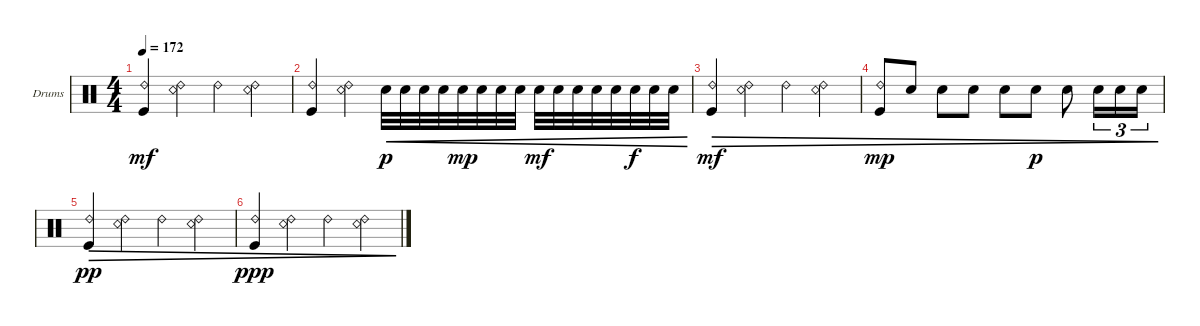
\defaultSystemsLayout 4
\bracketExtendMode groupsimilarinstruments
\firstSystemTrackNameOrientation horizontal
\otherSystemsTrackNameOrientation horizontal
\track ("Drums" "Drums") {instrument percussion}
\staff {score}
\articulation defaults
\ts (4 4)
\tempo 172
\clef neutral
\scale
0.333333
\ks c
("Ride (bell) 2" "Kick (hit)").4{dy mf} ("Ride (bell) 2" "Snare (rim shot)").4 "Ride (bell) 2".4 ("Snare (rim shot)" "Ride (bell) 2").4 |
\scale
0.333333 ("Ride (bell) 2" "Kick (hit)").4 ("Ride (bell) 2" "Snare (rim shot)").4 "Snare (hit) 2".32{cre dy p} "Snare (hit) 2".32{cre} "Snare (hit) 2".32{cre} "Snare (hit) 2".32{cre} "Snare (hit) 2".32{cre dy mp} "Snare (hit) 2".32{cre} "Snare (hit) 2".32{cre} "Snare (hit) 2".32{cre} "Snare (hit) 2".32{cre dy mf} "Snare (hit) 2".32{cre} "Snare (hit) 2".32{cre} "Snare (hit) 2".32{cre} "Snare (hit) 2".32{cre} "Snare (hit) 2".32{cre dy f} "Snare (hit) 2".32{cre} "Snare (hit) 2".32{cre} |
\scale
0.333333 ("Ride (bell) 2" "Kick (hit)").4{dec dy mf} ("Ride (bell) 2" "Snare (rim shot)").4{dec} "Ride (bell) 2".4{dec} ("Snare (rim shot)" "Ride (bell) 2").4{dec} |
\scale
0.333333 ("Ride (bell) 2" "Kick (hit)").8{dec dy mp} "Snare (hit) 2".8{dec} "Snare (hit) 2".8{dec} "Snare (hit) 2".8{dec} "Snare (hit) 2".8{dec} "Snare (hit) 2".8{dec dy p} "Snare (hit) 2".8{dec} "Snare (hit) 2".16{tu (3 2) dec} "Snare (hit) 2".16{tu (3 2) dec} "Snare (hit) 2".16{tu (3 2) dec} |
("Ride (bell) 2" "Kick (hit)").4{dec dy pp} ("Ride (bell) 2" "Snare (rim shot)").4{dec} "Ride (bell) 2".4{dec} ("Snare (rim shot)" "Ride (bell) 2").4{dec} |
("Ride (bell) 2" "Kick (hit)").4{dec dy ppp} ("Ride (bell) 2" "Snare (rim shot)").4{dec} "Ride (bell) 2".4{dec} ("Snare (rim shot)" "Ride (bell) 2").4{dec}
